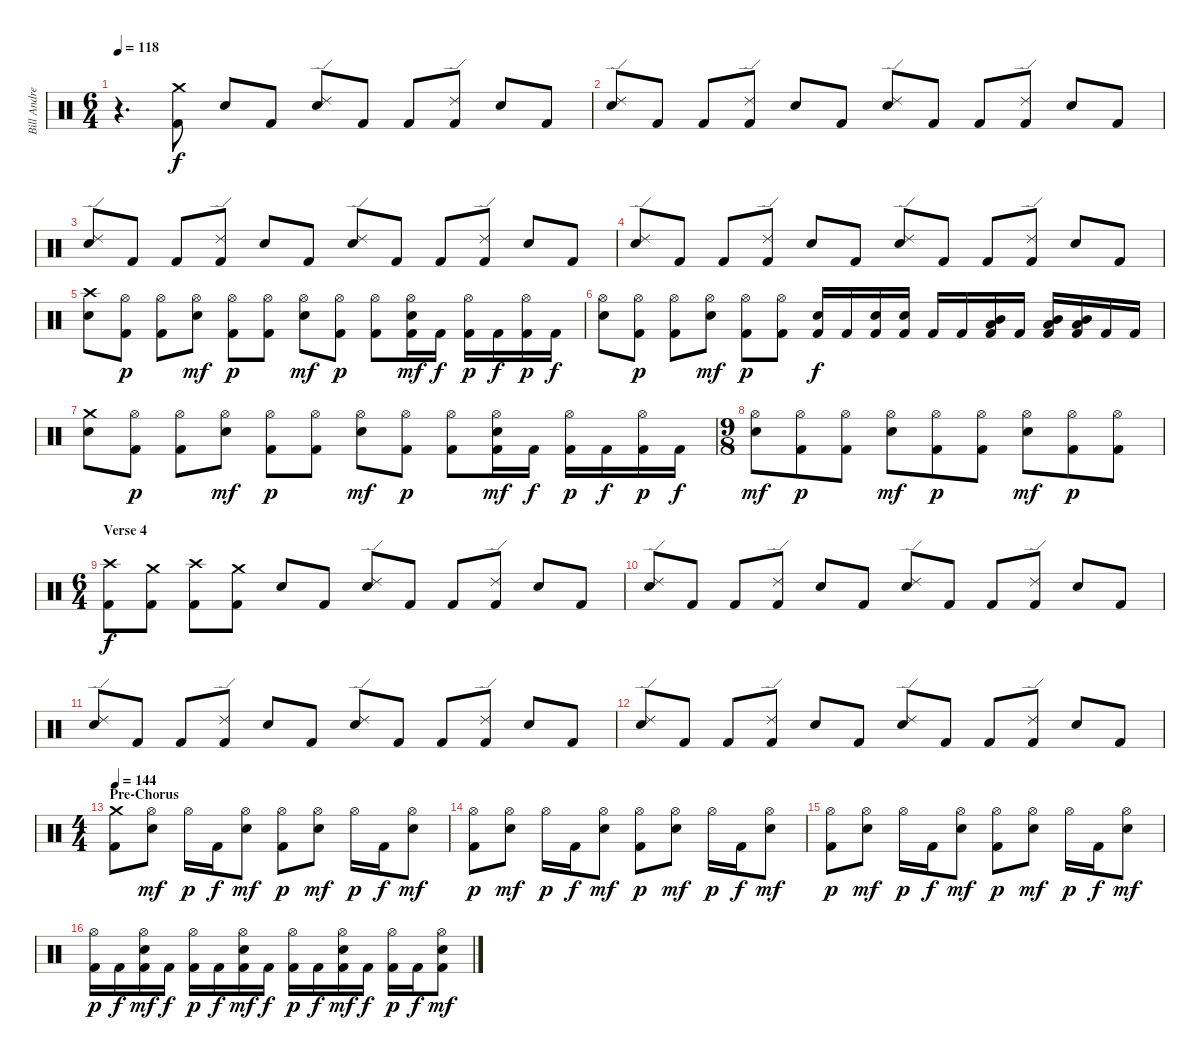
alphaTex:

\track ("Bill Andrews" "Bill Andre") {instrument percussion}
\staff {score}
\articulation defaults
\ts (6 4)
\tempo 118
\clef neutral
\ks c
r.4{d dy f} ("Kick (hit) 2" "Crash medium (hit)").8 "Snare (hit) 2".8 "Kick (hit) 2".8 ("Ride (edge) 2" "Snare (hit) 2").8 "Kick (hit) 2".8 "Kick (hit) 2".8 ("Kick (hit) 2" "Ride (edge) 2").8 "Snare (hit) 2".8 "Kick (hit) 2".8 |
("Ride (edge) 2" "Snare (hit) 2").8 "Kick (hit) 2".8 "Kick (hit) 2".8 ("Kick (hit) 2" "Ride (edge) 2").8 "Snare (hit) 2".8 "Kick (hit) 2".8 ("Ride (edge) 2" "Snare (hit) 2").8 "Kick (hit) 2".8 "Kick (hit) 2".8 ("Kick (hit) 2" "Ride (edge) 2").8 "Snare (hit) 2".8 "Kick (hit) 2".8 |
("Ride (edge) 2" "Snare (hit) 2").8 "Kick (hit) 2".8 "Kick (hit) 2".8 ("Kick (hit) 2" "Ride (edge) 2").8 "Snare (hit) 2".8 "Kick (hit) 2".8 ("Ride (edge) 2" "Snare (hit) 2").8 "Kick (hit) 2".8 "Kick (hit) 2".8 ("Kick (hit) 2" "Ride (edge) 2").8 "Snare (hit) 2".8 "Kick (hit) 2".8 |
("Ride (edge) 2" "Snare (hit) 2").8 "Kick (hit) 2".8 "Kick (hit) 2".8 ("Kick (hit) 2" "Ride (edge) 2").8 "Snare (hit) 2".8 "Kick (hit) 2".8 ("Ride (edge) 2" "Snare (hit) 2").8 "Kick (hit) 2".8 "Kick (hit) 2".8 ("Kick (hit) 2" "Ride (edge) 2").8 "Snare (hit) 2".8 "Kick (hit) 2".8 |
("Crash high (hit)" "Snare (hit) 2").8 ("Kick (hit) 2" "Hi-Hat (open)").8{dy p} ("Kick (hit) 2" "Hi-Hat (open)").8 ("Hi-Hat (open)" "Snare (hit) 2").8{dy mf} ("Kick (hit) 2" "Hi-Hat (open)").8{dy p} ("Kick (hit) 2" "Hi-Hat (open)").8 ("Hi-Hat (open)" "Snare (hit) 2").8{dy mf} ("Kick (hit) 2" "Hi-Hat (open)").8{dy p} ("Kick (hit) 2" "Hi-Hat (open)").8 ("Kick (hit) 2" "Hi-Hat (open)" "Snare (hit) 2").16{dy mf} "Kick (hit) 2".16{dy f} ("Kick (hit) 2" "Hi-Hat (open)").16{dy p} "Kick (hit) 2".16{dy f} ("Kick (hit) 2" "Hi-Hat (open)").16{dy p} "Kick (hit) 2".16{dy f} |
("Hi-Hat (open)" "Snare (hit) 2").8 ("Kick (hit) 2" "Hi-Hat (open)").8{dy p} ("Kick (hit) 2" "Hi-Hat (open)").8 ("Hi-Hat (open)" "Snare (hit) 2").8{dy mf} ("Kick (hit) 2" "Hi-Hat (open)").8{dy p} ("Kick (hit) 2" "Hi-Hat (open)").8 ("Kick (hit) 2" "Snare (hit) 2").16{dy f} "Kick (hit) 2".16 ("Kick (hit) 2" "Snare (hit) 2").16 ("Kick (hit) 2" "Snare (hit) 2").16 "Kick (hit) 2".16 "Kick (hit) 2".16 ("Kick (hit) 2" "Mid Tom (hit)" "Low Tom (hit)").16 "Kick (hit) 2".16 ("Kick (hit) 2" "Mid Tom (hit)" "Low Tom (hit)").16 ("Kick (hit) 2" "Mid Tom (hit)" "Low Tom (hit)").16 "Kick (hit) 2".16 "Kick (hit) 2".16 |
("Crash medium (hit)" "Snare (hit) 2").8 ("Kick (hit) 2" "Hi-Hat (open)").8{dy p} ("Kick (hit) 2" "Hi-Hat (open)").8 ("Hi-Hat (open)" "Snare (hit) 2").8{dy mf} ("Kick (hit) 2" "Hi-Hat (open)").8{dy p} ("Kick (hit) 2" "Hi-Hat (open)").8 ("Hi-Hat (open)" "Snare (hit) 2").8{dy mf} ("Kick (hit) 2" "Hi-Hat (open)").8{dy p} ("Kick (hit) 2" "Hi-Hat (open)").8 ("Kick (hit) 2" "Hi-Hat (open)" "Snare (hit) 2").16{dy mf} "Kick (hit) 2".16{dy f} ("Kick (hit) 2" "Hi-Hat (open)").16{dy p} "Kick (hit) 2".16{dy f} ("Kick (hit) 2" "Hi-Hat (open)").16{dy p} "Kick (hit) 2".16{dy f} |
\ts (9 8)
("Hi-Hat (open)" "Snare (hit) 2").8{dy mf} ("Kick (hit) 2" "Hi-Hat (open)").8{dy p} ("Kick (hit) 2" "Hi-Hat (open)").8 ("Hi-Hat (open)" "Snare (hit) 2").8{dy mf} ("Kick (hit) 2" "Hi-Hat (open)").8{dy p} ("Kick (hit) 2" "Hi-Hat (open)").8 ("Hi-Hat (open)" "Snare (hit) 2").8{dy mf} ("Kick (hit) 2" "Hi-Hat (open)").8{dy p} ("Kick (hit) 2" "Hi-Hat (open)").8 |
\ts (6 4)
\section ("" "Verse 4")
("Kick (hit) 2" "Crash high (hit)").8{dy f} ("Kick (hit) 2" "Crash medium (hit)").8 ("Kick (hit) 2" "Crash high (hit)").8 ("Kick (hit) 2" "Crash medium (hit)").8 "Snare (hit) 2".8 "Kick (hit) 2".8 ("Ride (edge) 2" "Snare (hit) 2").8 "Kick (hit) 2".8 "Kick (hit) 2".8 ("Kick (hit) 2" "Ride (edge) 2").8 "Snare (hit) 2".8 "Kick (hit) 2".8 |
("Ride (edge) 2" "Snare (hit) 2").8 "Kick (hit) 2".8 "Kick (hit) 2".8 ("Kick (hit) 2" "Ride (edge) 2").8 "Snare (hit) 2".8 "Kick (hit) 2".8 ("Ride (edge) 2" "Snare (hit) 2").8 "Kick (hit) 2".8 "Kick (hit) 2".8 ("Kick (hit) 2" "Ride (edge) 2").8 "Snare (hit) 2".8 "Kick (hit) 2".8 |
("Ride (edge) 2" "Snare (hit) 2").8 "Kick (hit) 2".8 "Kick (hit) 2".8 ("Kick (hit) 2" "Ride (edge) 2").8 "Snare (hit) 2".8 "Kick (hit) 2".8 ("Ride (edge) 2" "Snare (hit) 2").8 "Kick (hit) 2".8 "Kick (hit) 2".8 ("Kick (hit) 2" "Ride (edge) 2").8 "Snare (hit) 2".8 "Kick (hit) 2".8 |
("Ride (edge) 2" "Snare (hit) 2").8 "Kick (hit) 2".8 "Kick (hit) 2".8 ("Kick (hit) 2" "Ride (edge) 2").8 "Snare (hit) 2".8 "Kick (hit) 2".8 ("Ride (edge) 2" "Snare (hit) 2").8 "Kick (hit) 2".8 "Kick (hit) 2".8 ("Kick (hit) 2" "Ride (edge) 2").8 "Snare (hit) 2".8 "Kick (hit) 2".8 |
\ts (4 4)
\section ("" "Pre-Chorus")
\tempo 144
("Kick (hit) 2" "Crash medium (hit)").8 ("Hi-Hat (open)" "Snare (hit) 2").8{dy mf} "Hi-Hat (open)".16{dy p} "Kick (hit) 2".16{dy f} ("Hi-Hat (open)" "Snare (hit) 2").8{dy mf} ("Kick (hit) 2" "Hi-Hat (open)").8{dy p} ("Hi-Hat (open)" "Snare (hit) 2").8{dy mf} "Hi-Hat (open)".16{dy p} "Kick (hit) 2".16{dy f} ("Hi-Hat (open)" "Snare (hit) 2").8{dy mf} |
("Kick (hit) 2" "Hi-Hat (open)").8{dy p} ("Hi-Hat (open)" "Snare (hit) 2").8{dy mf} "Hi-Hat (open)".16{dy p} "Kick (hit) 2".16{dy f} ("Hi-Hat (open)" "Snare (hit) 2").8{dy mf} ("Kick (hit) 2" "Hi-Hat (open)").8{dy p} ("Hi-Hat (open)" "Snare (hit) 2").8{dy mf} "Hi-Hat (open)".16{dy p} "Kick (hit) 2".16{dy f} ("Hi-Hat (open)" "Snare (hit) 2").8{dy mf} |
("Kick (hit) 2" "Hi-Hat (open)").8{dy p} ("Hi-Hat (open)" "Snare (hit) 2").8{dy mf} "Hi-Hat (open)".16{dy p} "Kick (hit) 2".16{dy f} ("Hi-Hat (open)" "Snare (hit) 2").8{dy mf} ("Kick (hit) 2" "Hi-Hat (open)").8{dy p} ("Hi-Hat (open)" "Snare (hit) 2").8{dy mf} "Hi-Hat (open)".16{dy p} "Kick (hit) 2".16{dy f} ("Hi-Hat (open)" "Snare (hit) 2").8{dy mf} |
("Kick (hit) 2" "Hi-Hat (open)").16{dy p} "Kick (hit) 2".16{dy f} ("Kick (hit) 2" "Hi-Hat (open)" "Snare (hit) 2").16{dy mf} "Kick (hit) 2".16{dy f} ("Kick (hit) 2" "Hi-Hat (open)").16{dy p} "Kick (hit) 2".16{dy f} ("Kick (hit) 2" "Hi-Hat (open)" "Snare (hit) 2").16{dy mf} "Kick (hit) 2".16{dy f} ("Kick (hit) 2" "Hi-Hat (open)").16{dy p} "Kick (hit) 2".16{dy f} ("Kick (hit) 2" "Hi-Hat (open)" "Snare (hit) 2").16{dy mf} "Kick (hit) 2".16{dy f} ("Kick (hit) 2" "Hi-Hat (open)").16{dy p} "Kick (hit) 2".16{dy f} ("Kick (hit) 2" "Hi-Hat (open)" "Snare (hit) 2").8{dy mf}
